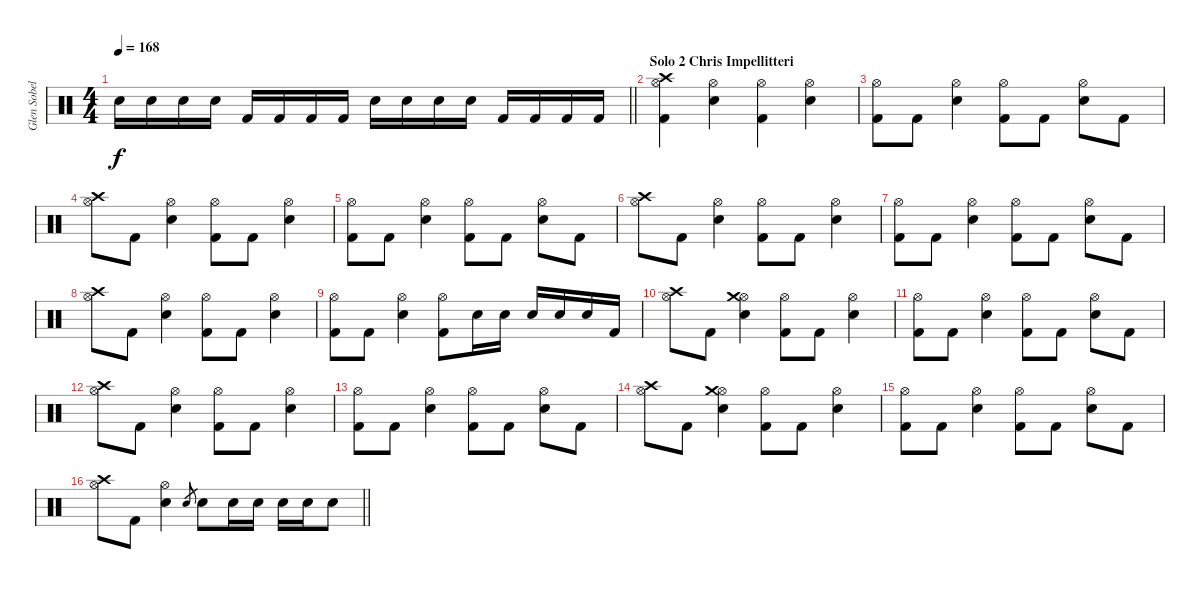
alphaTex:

\track ("Glen Sobel" "Glen Sobel") {instrument percussion}
\staff {score}
\articulation defaults
\ts (4 4)
\tempo 168
\clef neutral
\barLineRight lightlight
\ks c "Snare (hit) 2".16{dy f} "Snare (hit) 2".16 "Snare (hit) 2".16 "Snare (hit) 2".16 "Kick (hit) 2".16 "Kick (hit) 2".16 "Kick (hit) 2".16 "Kick (hit) 2".16 "Snare (hit) 2".16 "Snare (hit) 2".16 "Snare (hit) 2".16 "Snare (hit) 2".16 "Kick (hit) 2".16 "Kick (hit) 2".16 "Kick (hit) 2".16 "Kick (hit) 2".16
|
\section ("" "Solo 2 Chris Impellitteri")
("Hi-Hat (open)" "Crash high (hit)" "Kick (hit) 2").4 ("Hi-Hat (open)" "Snare (hit) 2").4 ("Hi-Hat (open)" "Kick (hit) 2").4 ("Hi-Hat (open)" "Snare (hit) 2").4 |
("Hi-Hat (open)" "Kick (hit) 2").8 "Kick (hit) 2".8 ("Hi-Hat (open)" "Snare (hit) 2").4 ("Hi-Hat (open)" "Kick (hit) 2").8 "Kick (hit) 2".8 ("Hi-Hat (open)" "Snare (hit) 2").8 "Kick (hit) 2".8 |
("Hi-Hat (open)" "Crash high (hit)").8 "Kick (hit) 2".8 ("Hi-Hat (open)" "Snare (hit) 2").4 ("Hi-Hat (open)" "Kick (hit) 2").8 "Kick (hit) 2".8 ("Hi-Hat (open)" "Snare (hit) 2").4 |
("Hi-Hat (open)" "Kick (hit) 2").8 "Kick (hit) 2".8 ("Hi-Hat (open)" "Snare (hit) 2").4 ("Hi-Hat (open)" "Kick (hit) 2").8 "Kick (hit) 2".8 ("Hi-Hat (open)" "Snare (hit) 2").8 "Kick (hit) 2".8 |
("Hi-Hat (open)" "Crash high (hit)").8 "Kick (hit) 2".8 ("Hi-Hat (open)" "Snare (hit) 2").4 ("Hi-Hat (open)" "Kick (hit) 2").8 "Kick (hit) 2".8 ("Hi-Hat (open)" "Snare (hit) 2").4 |
("Hi-Hat (open)" "Kick (hit) 2").8 "Kick (hit) 2".8 ("Hi-Hat (open)" "Snare (hit) 2").4 ("Hi-Hat (open)" "Kick (hit) 2").8 "Kick (hit) 2".8 ("Hi-Hat (open)" "Snare (hit) 2").8 "Kick (hit) 2".8 |
("Hi-Hat (open)" "Crash high (hit)").8 "Kick (hit) 2".8 ("Hi-Hat (open)" "Snare (hit) 2").4 ("Hi-Hat (open)" "Kick (hit) 2").8 "Kick (hit) 2".8 ("Hi-Hat (open)" "Snare (hit) 2").4 |
("Hi-Hat (open)" "Kick (hit) 2").8 "Kick (hit) 2".8 ("Hi-Hat (open)" "Snare (hit) 2").4 ("Hi-Hat (open)" "Kick (hit) 2").8 "Snare (hit) 2".16 "Snare (hit) 2".16 "Snare (hit) 2".16 "Snare (hit) 2".16 "Snare (hit) 2".16 "Kick (hit) 2".16 |
("Hi-Hat (open)" "Crash high (hit)").8 "Kick (hit) 2".8 ("Hi-Hat (open)" "Snare (hit) 2" "Crash medium (hit)").4 ("Hi-Hat (open)" "Kick (hit) 2").8 "Kick (hit) 2".8 ("Hi-Hat (open)" "Snare (hit) 2").4 |
("Hi-Hat (open)" "Kick (hit) 2").8 "Kick (hit) 2".8 ("Hi-Hat (open)" "Snare (hit) 2").4 ("Hi-Hat (open)" "Kick (hit) 2").8 "Kick (hit) 2".8 ("Hi-Hat (open)" "Snare (hit) 2").8 "Kick (hit) 2".8 |
("Hi-Hat (open)" "Crash high (hit)").8 "Kick (hit) 2".8 ("Hi-Hat (open)" "Snare (hit) 2").4 ("Hi-Hat (open)" "Kick (hit) 2").8 "Kick (hit) 2".8 ("Hi-Hat (open)" "Snare (hit) 2").4 |
("Hi-Hat (open)" "Kick (hit) 2").8 "Kick (hit) 2".8 ("Hi-Hat (open)" "Snare (hit) 2").4 ("Hi-Hat (open)" "Kick (hit) 2").8 "Kick (hit) 2".8 ("Hi-Hat (open)" "Snare (hit) 2").8 "Kick (hit) 2".8 |
("Hi-Hat (open)" "Crash high (hit)").8 "Kick (hit) 2".8 ("Hi-Hat (open)" "Snare (hit) 2" "Crash medium (hit)").4 ("Hi-Hat (open)" "Kick (hit) 2").8 "Kick (hit) 2".8 ("Hi-Hat (open)" "Snare (hit) 2").4 |
("Hi-Hat (open)" "Kick (hit) 2").8 "Kick (hit) 2".8 ("Hi-Hat (open)" "Snare (hit) 2").4 ("Hi-Hat (open)" "Kick (hit) 2").8 "Kick (hit) 2".8 ("Hi-Hat (open)" "Snare (hit) 2").8 "Kick (hit) 2".8 |
\barLineRight lightlight
("Hi-Hat (open)" "Crash high (hit)").8 "Kick (hit) 2".8 ("Hi-Hat (open)" "Snare (hit) 2").4 "Snare (hit) 2".8{gr} "Snare (hit) 2".8 "Snare (hit) 2".16 "Snare (hit) 2".16 "Snare (hit) 2".16 "Snare (hit) 2".16 "Snare (hit) 2".8
